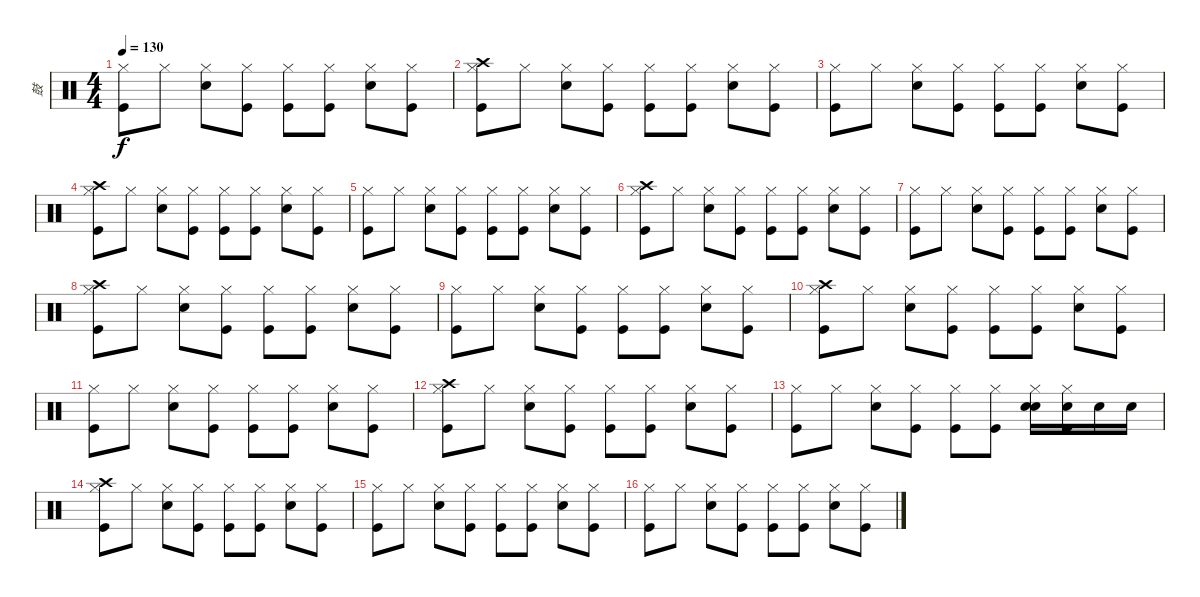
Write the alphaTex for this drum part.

\track ("鼓" "鼓") {instrument percussion}
\staff {score}
\articulation defaults
\ts (4 4)
\tempo 130
\clef neutral
\ks c
("Hi-Hat (closed)" "Kick (hit)").8{dy f} "Hi-Hat (closed)".8 ("Hi-Hat (closed)" "Snare (hit) 2").8 ("Hi-Hat (closed)" "Kick (hit)").8 ("Hi-Hat (closed)" "Kick (hit)").8 ("Hi-Hat (closed)" "Kick (hit)").8 ("Hi-Hat (closed)" "Snare (hit) 2").8 ("Hi-Hat (closed)" "Kick (hit)").8 |
("Crash high (hit)" "Hi-Hat (closed)" "Kick (hit)").8 "Hi-Hat (closed)".8 ("Hi-Hat (closed)" "Snare (hit) 2").8 ("Hi-Hat (closed)" "Kick (hit)").8 ("Hi-Hat (closed)" "Kick (hit)").8 ("Hi-Hat (closed)" "Kick (hit)").8 ("Hi-Hat (closed)" "Snare (hit) 2").8 ("Hi-Hat (closed)" "Kick (hit)").8 |
("Hi-Hat (closed)" "Kick (hit)").8 "Hi-Hat (closed)".8 ("Hi-Hat (closed)" "Snare (hit) 2").8 ("Hi-Hat (closed)" "Kick (hit)").8 ("Hi-Hat (closed)" "Kick (hit)").8 ("Hi-Hat (closed)" "Kick (hit)").8 ("Hi-Hat (closed)" "Snare (hit) 2").8 ("Hi-Hat (closed)" "Kick (hit)").8 |
("Crash high (hit)" "Hi-Hat (closed)" "Kick (hit)").8 "Hi-Hat (closed)".8 ("Hi-Hat (closed)" "Snare (hit) 2").8 ("Hi-Hat (closed)" "Kick (hit)").8 ("Hi-Hat (closed)" "Kick (hit)").8 ("Hi-Hat (closed)" "Kick (hit)").8 ("Hi-Hat (closed)" "Snare (hit) 2").8 ("Hi-Hat (closed)" "Kick (hit)").8 |
("Hi-Hat (closed)" "Kick (hit)").8 "Hi-Hat (closed)".8 ("Hi-Hat (closed)" "Snare (hit) 2").8 ("Hi-Hat (closed)" "Kick (hit)").8 ("Hi-Hat (closed)" "Kick (hit)").8 ("Hi-Hat (closed)" "Kick (hit)").8 ("Hi-Hat (closed)" "Snare (hit) 2").8 ("Hi-Hat (closed)" "Kick (hit)").8 |
("Crash high (hit)" "Hi-Hat (closed)" "Kick (hit)").8 "Hi-Hat (closed)".8 ("Hi-Hat (closed)" "Snare (hit) 2").8 ("Hi-Hat (closed)" "Kick (hit)").8 ("Hi-Hat (closed)" "Kick (hit)").8 ("Hi-Hat (closed)" "Kick (hit)").8 ("Hi-Hat (closed)" "Snare (hit) 2").8 ("Hi-Hat (closed)" "Kick (hit)").8 |
("Hi-Hat (closed)" "Kick (hit)").8 "Hi-Hat (closed)".8 ("Hi-Hat (closed)" "Snare (hit) 2").8 ("Hi-Hat (closed)" "Kick (hit)").8 ("Hi-Hat (closed)" "Kick (hit)").8 ("Hi-Hat (closed)" "Kick (hit)").8 ("Hi-Hat (closed)" "Snare (hit) 2").8 ("Hi-Hat (closed)" "Kick (hit)").8 |
("Crash high (hit)" "Hi-Hat (closed)" "Kick (hit)").8 "Hi-Hat (closed)".8 ("Hi-Hat (closed)" "Snare (hit) 2").8 ("Hi-Hat (closed)" "Kick (hit)").8 ("Hi-Hat (closed)" "Kick (hit)").8 ("Hi-Hat (closed)" "Kick (hit)").8 ("Hi-Hat (closed)" "Snare (hit) 2").8 ("Hi-Hat (closed)" "Kick (hit)").8 |
("Hi-Hat (closed)" "Kick (hit)").8 "Hi-Hat (closed)".8 ("Hi-Hat (closed)" "Snare (hit) 2").8 ("Hi-Hat (closed)" "Kick (hit)").8 ("Hi-Hat (closed)" "Kick (hit)").8 ("Hi-Hat (closed)" "Kick (hit)").8 ("Hi-Hat (closed)" "Snare (hit) 2").8 ("Hi-Hat (closed)" "Kick (hit)").8 |
("Crash high (hit)" "Hi-Hat (closed)" "Kick (hit)").8 "Hi-Hat (closed)".8 ("Hi-Hat (closed)" "Snare (hit) 2").8 ("Hi-Hat (closed)" "Kick (hit)").8 ("Hi-Hat (closed)" "Kick (hit)").8 ("Hi-Hat (closed)" "Kick (hit)").8 ("Hi-Hat (closed)" "Snare (hit) 2").8 ("Hi-Hat (closed)" "Kick (hit)").8 |
("Hi-Hat (closed)" "Kick (hit)").8 "Hi-Hat (closed)".8 ("Hi-Hat (closed)" "Snare (hit) 2").8 ("Hi-Hat (closed)" "Kick (hit)").8 ("Hi-Hat (closed)" "Kick (hit)").8 ("Hi-Hat (closed)" "Kick (hit)").8 ("Hi-Hat (closed)" "Snare (hit) 2").8 ("Hi-Hat (closed)" "Kick (hit)").8 |
("Crash high (hit)" "Hi-Hat (closed)" "Kick (hit)").8 "Hi-Hat (closed)".8 ("Hi-Hat (closed)" "Snare (hit) 2").8 ("Hi-Hat (closed)" "Kick (hit)").8 ("Hi-Hat (closed)" "Kick (hit)").8 ("Hi-Hat (closed)" "Kick (hit)").8 ("Hi-Hat (closed)" "Snare (hit) 2").8 ("Hi-Hat (closed)" "Kick (hit)").8 |
("Hi-Hat (closed)" "Kick (hit)").8 "Hi-Hat (closed)".8 ("Hi-Hat (closed)" "Snare (hit) 2").8 ("Hi-Hat (closed)" "Kick (hit)").8 ("Hi-Hat (closed)" "Kick (hit)").8 ("Hi-Hat (closed)" "Kick (hit)").8 ("Hi-Hat (closed)" "Snare (hit) 2" "Snare (hit) 2").16 ("Hi-Hat (closed)" "Snare (hit) 2" "Kick (hit)").16 "Snare (hit) 2".16 "Snare (hit) 2".16 |
("Crash high (hit)" "Hi-Hat (closed)" "Kick (hit)").8 "Hi-Hat (closed)".8 ("Hi-Hat (closed)" "Snare (hit) 2").8 ("Hi-Hat (closed)" "Kick (hit)").8 ("Hi-Hat (closed)" "Kick (hit)").8 ("Hi-Hat (closed)" "Kick (hit)").8 ("Hi-Hat (closed)" "Snare (hit) 2").8 ("Hi-Hat (closed)" "Kick (hit)").8 |
("Hi-Hat (closed)" "Kick (hit)").8 "Hi-Hat (closed)".8 ("Hi-Hat (closed)" "Snare (hit) 2").8 ("Hi-Hat (closed)" "Kick (hit)").8 ("Hi-Hat (closed)" "Kick (hit)").8 ("Hi-Hat (closed)" "Kick (hit)").8 ("Hi-Hat (closed)" "Snare (hit) 2").8 ("Hi-Hat (closed)" "Kick (hit)").8 |
("Hi-Hat (closed)" "Kick (hit)").8 "Hi-Hat (closed)".8 ("Hi-Hat (closed)" "Snare (hit) 2").8 ("Hi-Hat (closed)" "Kick (hit)").8 ("Hi-Hat (closed)" "Kick (hit)").8 ("Hi-Hat (closed)" "Kick (hit)").8 ("Hi-Hat (closed)" "Snare (hit) 2").8 ("Hi-Hat (closed)" "Kick (hit)").8
